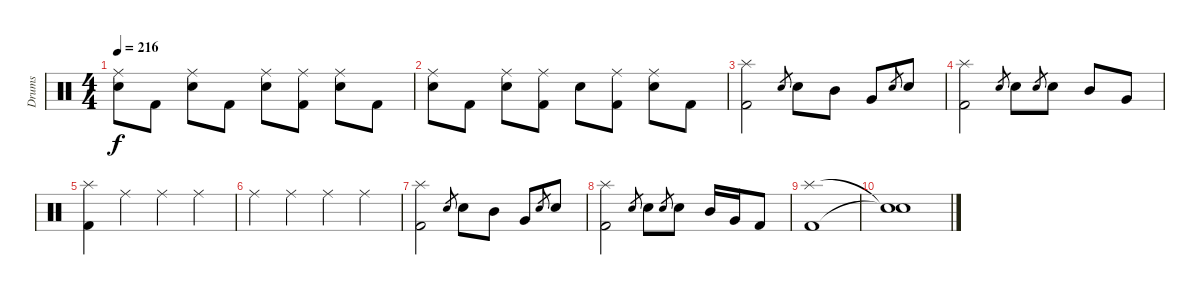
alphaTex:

\track ("Drums" "Drums") {instrument percussion}
\staff {score}
\articulation defaults
\ts (4 4)
\tempo 216
\clef neutral
\ks c
("Ride (middle)" "Electric Snare (hit)").8{dy f} "Kick (hit) 2".8 ("Ride (middle)" "Electric Snare (hit)").8 "Kick (hit) 2".8 ("Ride (middle)" "Electric Snare (hit)").8 ("Ride (middle)" "Kick (hit) 2").8 ("Ride (middle)" "Electric Snare (hit)").8 "Kick (hit) 2".8 |
("Ride (middle)" "Electric Snare (hit)").8 "Kick (hit) 2".8 ("Ride (middle)" "Electric Snare (hit)").8 ("Ride (middle)" "Kick (hit) 2").8 "Electric Snare (hit)".8 ("Ride (middle)" "Kick (hit) 2").8 ("Ride (middle)" "Electric Snare (hit)").8 "Kick (hit) 2".8 |
("Splash (hit)" "Kick (hit) 2").2 "Electric Snare (hit)".8{gr} "Electric Snare (hit)".8 "Mid Tom (hit)".8 "Very Low Tom (hit)".8 "Electric Snare (hit)".8{gr} "Electric Snare (hit)".8 |
("Splash (hit)" "Kick (hit) 2").2 "Electric Snare (hit)".8{gr} "Electric Snare (hit)".8 "Electric Snare (hit)".8{gr} "Electric Snare (hit)".8 "Mid Tom (hit)".8 "Very Low Tom (hit)".8 |
("Splash (hit)" "Kick (hit) 2").4 "Ride (middle)".4 "Ride (middle)".4 "Ride (middle)".4 |
"Ride (middle)".4 "Ride (middle)".4 "Ride (middle)".4 "Ride (middle)".4 |
("Splash (hit)" "Kick (hit) 2").2 "Electric Snare (hit)".8{gr} "Electric Snare (hit)".8 "Mid Tom (hit)".8 "Very Low Tom (hit)".8 "Electric Snare (hit)".8{gr} "Electric Snare (hit)".8 |
("Splash (hit)" "Kick (hit) 2").2 "Electric Snare (hit)".8{gr} "Electric Snare (hit)".8 "Electric Snare (hit)".8{gr} "Electric Snare (hit)".8 "Mid Tom (hit)".16 "Very Low Tom (hit)".16 "Kick (hit) 2".8 |
("Splash (hit)" "Kick (hit) 2").1 |
("Snare (hit)"{t} "Snare (hit)"{t}).1
